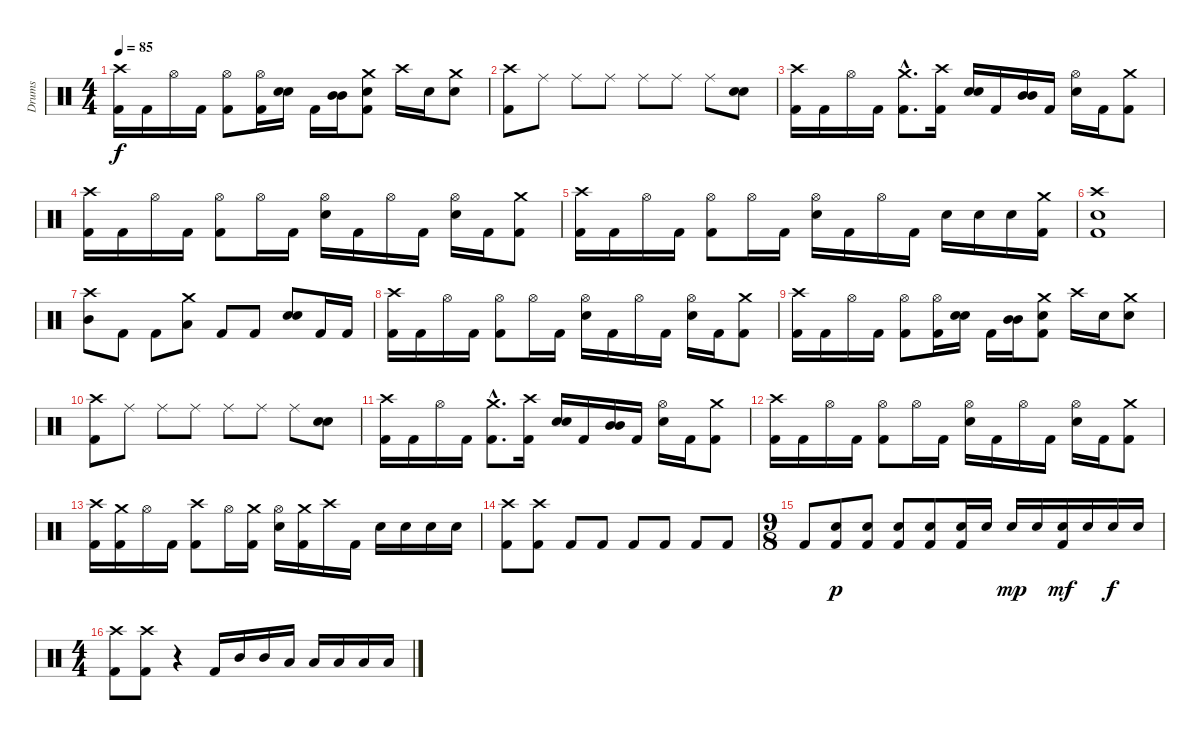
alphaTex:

\track ("Drums" "Drums") {instrument percussion}
\staff {score}
\articulation defaults
\ts (4 4)
\tempo 85
\clef neutral
\ks c
("Crash high (hit)" "Kick (hit) 2").16{dy f} "Kick (hit) 2".16 "Hi-Hat (open)".16 "Kick (hit) 2".16 ("Hi-Hat (open)" "Kick (hit) 2").8 ("Hi-Hat (open)" "Kick (hit) 2").16 ("Snare (hit) 2" "Snare (hit) 2").16{bd 240} "Kick (hit) 2".16 ("Mid Tom (hit)" "Mid Tom (hit)").16{bd 240} ("Crash medium (hit)" "Snare (hit) 2" "Kick (hit) 2").8 "Crash high (hit)".16 "Snare (hit) 2".16 ("Crash medium (hit)" "Snare (hit) 2").8 |
("Crash high (hit)" "Kick (hit) 2").8 "Ride (middle)".8 "Ride (middle)".8 "Ride (middle)".8 "Ride (middle)".8 "Ride (middle)".8 "Ride (middle)".8 ("Snare (hit) 2" "Snare (hit) 2").8{bd 240} |
("Crash high (hit)" "Kick (hit) 2").16 "Kick (hit) 2".16 "Hi-Hat (open)".16 "Kick (hit) 2".16 ("Crash medium (hit)"{hac} "Kick (hit) 2"{hac}).8{d} ("Crash high (hit)" "Kick (hit) 2").16 ("Snare (hit) 2" "Snare (hit) 2").16{bd 240} "Kick (hit) 2".16 ("Mid Tom (hit)" "Mid Tom (hit)").16{bd 240} "Kick (hit) 2".16 ("Hi-Hat (open)" "Snare (hit) 2").16 "Kick (hit) 2".16 ("Crash medium (hit)" "Kick (hit) 2").8 |
("Crash high (hit)" "Kick (hit) 2").16 "Kick (hit) 2".16 "Hi-Hat (open)".16 "Kick (hit) 2".16 ("Hi-Hat (open)" "Kick (hit) 2").8 "Hi-Hat (open)".16 "Kick (hit) 2".16 ("Hi-Hat (open)" "Snare (hit) 2").16 "Kick (hit) 2".16 "Hi-Hat (open)".16 "Kick (hit) 2".16 ("Hi-Hat (open)" "Snare (hit) 2").16 "Kick (hit) 2".16 ("Crash medium (hit)" "Kick (hit) 2").8 |
("Crash high (hit)" "Kick (hit) 2").16 "Kick (hit) 2".16 "Hi-Hat (open)".16 "Kick (hit) 2".16 ("Hi-Hat (open)" "Kick (hit) 2").8 "Hi-Hat (open)".16 "Kick (hit) 2".16 ("Hi-Hat (open)" "Snare (hit) 2").16 "Kick (hit) 2".16 "Hi-Hat (open)".16 "Kick (hit) 2".16 "Snare (hit) 2".16 "Snare (hit) 2".16 "Snare (hit) 2".16 ("Crash medium (hit)" "Kick (hit) 2").16 |
("Crash high (hit)" "Snare (hit) 2" "Kick (hit) 2").1 |
("Crash high (hit)" "Mid Tom (hit)").8 "Kick (hit) 2".8 "Kick (hit) 2".8 ("Crash medium (hit)" "Low Tom (hit)").8 "Kick (hit) 2".8 "Kick (hit) 2".8 ("Snare (hit) 2" "Snare (hit) 2").8{bd 240} "Kick (hit) 2".16 "Kick (hit) 2".16 |
("Crash high (hit)" "Kick (hit) 2").16 "Kick (hit) 2".16 "Hi-Hat (open)".16 "Kick (hit) 2".16 ("Hi-Hat (open)" "Kick (hit) 2").8 "Hi-Hat (open)".16 "Kick (hit) 2".16 ("Hi-Hat (open)" "Snare (hit) 2").16 "Kick (hit) 2".16 "Hi-Hat (open)".16 "Kick (hit) 2".16 ("Hi-Hat (open)" "Snare (hit) 2").16 "Kick (hit) 2".16 ("Crash medium (hit)" "Kick (hit) 2").8 |
("Crash high (hit)" "Kick (hit) 2").16 "Kick (hit) 2".16 "Hi-Hat (open)".16 "Kick (hit) 2".16 ("Hi-Hat (open)" "Kick (hit) 2").8 ("Hi-Hat (open)" "Kick (hit) 2").16 ("Snare (hit) 2" "Snare (hit) 2").16{bd 240} "Kick (hit) 2".16 ("Mid Tom (hit)" "Mid Tom (hit)").16{bd 240} ("Crash medium (hit)" "Snare (hit) 2" "Kick (hit) 2").8 "Crash high (hit)".16 "Snare (hit) 2".16 ("Crash medium (hit)" "Snare (hit) 2").8 |
("Crash high (hit)" "Kick (hit) 2").8 "Ride (middle)".8 "Ride (middle)".8 "Ride (middle)".8 "Ride (middle)".8 "Ride (middle)".8 "Ride (middle)".8 ("Snare (hit) 2" "Snare (hit) 2").8{bd 240} |
("Crash high (hit)" "Kick (hit) 2").16 "Kick (hit) 2".16 "Hi-Hat (open)".16 "Kick (hit) 2".16 ("Crash medium (hit)"{hac} "Kick (hit) 2"{hac}).8{d} ("Crash high (hit)" "Kick (hit) 2").16 ("Snare (hit) 2" "Snare (hit) 2").16{bd 240} "Kick (hit) 2".16 ("Mid Tom (hit)" "Mid Tom (hit)").16{bd 240} "Kick (hit) 2".16 ("Hi-Hat (open)" "Snare (hit) 2").16 "Kick (hit) 2".16 ("Crash medium (hit)" "Kick (hit) 2").8 |
("Crash high (hit)" "Kick (hit) 2").16 "Kick (hit) 2".16 "Hi-Hat (open)".16 "Kick (hit) 2".16 ("Hi-Hat (open)" "Kick (hit) 2").8 "Hi-Hat (open)".16 "Kick (hit) 2".16 ("Hi-Hat (open)" "Snare (hit) 2").16 "Kick (hit) 2".16 "Hi-Hat (open)".16 "Kick (hit) 2".16 ("Hi-Hat (open)" "Snare (hit) 2").16 "Kick (hit) 2".16 ("Crash medium (hit)" "Kick (hit) 2").8 |
("Crash high (hit)" "Kick (hit) 2").16 ("Crash medium (hit)" "Kick (hit) 2").16 "Hi-Hat (open)".16 "Kick (hit) 2".16 ("Crash high (hit)" "Kick (hit) 2").8 "Hi-Hat (open)".16 ("Crash medium (hit)" "Kick (hit) 2").16 ("Hi-Hat (open)" "Snare (hit) 2").16 ("Crash medium (hit)" "Kick (hit) 2").16 "Crash high (hit)".16 "Kick (hit) 2".16 "Snare (hit) 2".16 "Snare (hit) 2".16 "Snare (hit) 2".16 "Snare (hit) 2".16 |
("Crash high (hit)" "Kick (hit) 2").8 ("Crash high (hit)" "Kick (hit) 2").8 "Kick (hit) 2".8 "Kick (hit) 2".8 "Kick (hit) 2".8 "Kick (hit) 2".8 "Kick (hit) 2".8 "Kick (hit) 2".8 |
\ts (9 8)
"Kick (hit) 2".8 ("Snare (hit) 2" "Kick (hit) 2").8{dy p} ("Snare (hit) 2" "Kick (hit) 2").8 ("Snare (hit) 2" "Kick (hit) 2").8 ("Snare (hit) 2" "Kick (hit) 2").8 ("Snare (hit) 2" "Kick (hit) 2").16 "Snare (hit) 2".16 "Snare (hit) 2".16{dy mp} "Snare (hit) 2".16 ("Snare (hit) 2" "Kick (hit) 2").16{dy mf} "Snare (hit) 2".16 "Snare (hit) 2".16{dy f} "Snare (hit) 2".16 |
\ts (4 4)
("Crash high (hit)" "Kick (hit) 2").8 ("Crash high (hit)" "Kick (hit) 2").8 r.4 "Kick (hit) 2".16 "Mid Tom (hit)".16 "Mid Tom (hit)".16 "Low Tom (hit)".16 "Low Tom (hit)".16 "Low Floor Tom (hit)".16 "Low Floor Tom (hit)".16 "Low Floor Tom (hit)".16
